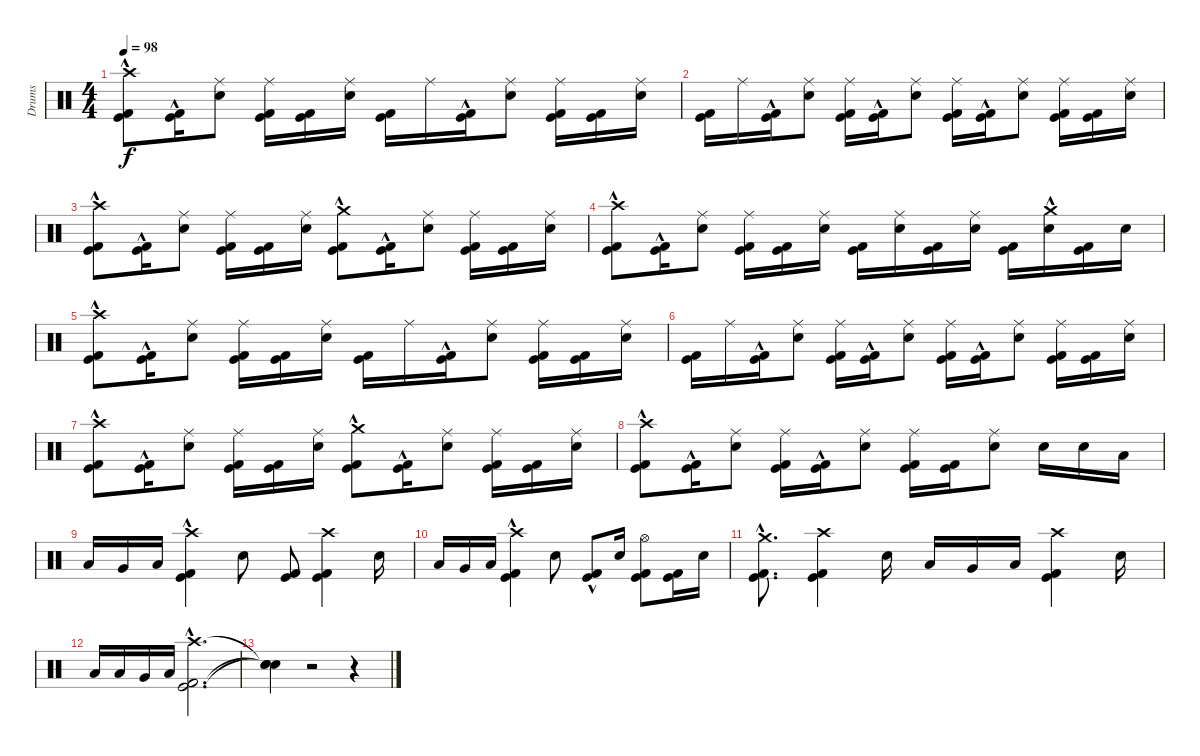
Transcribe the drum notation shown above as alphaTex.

\track ("Drums" "Drums") {instrument percussion}
\staff {score}
\articulation defaults
\ts (4 4)
\tempo 98
\clef neutral
\ks c
("Kick (hit)" "Kick (hit) 2" "Crash high (hit)"{hac}).8{dy f} ("Kick (hit)"{hac} "Kick (hit) 2"{hac}).16 ("Electric Snare (hit)" "Ride (middle)").8 ("Kick (hit)" "Kick (hit) 2" "Ride (middle)").16 ("Kick (hit)" "Kick (hit) 2").16 ("Electric Snare (hit)" "Ride (middle)").16 ("Kick (hit)" "Kick (hit) 2").16 "Ride (middle)".16 ("Kick (hit)"{hac} "Kick (hit) 2"{hac}).16 ("Electric Snare (hit)" "Ride (middle)").8 ("Kick (hit)" "Kick (hit) 2" "Ride (middle)").16 ("Kick (hit)" "Kick (hit) 2").16 ("Electric Snare (hit)" "Ride (middle)").16 |
("Kick (hit)" "Kick (hit) 2").16 "Ride (middle)".16 ("Kick (hit)"{hac} "Kick (hit) 2"{hac}).16 ("Electric Snare (hit)" "Ride (middle)").8 ("Kick (hit)" "Kick (hit) 2" "Ride (middle)").16 ("Kick (hit)"{hac} "Kick (hit) 2"{hac}).16 ("Electric Snare (hit)" "Ride (middle)").8 ("Kick (hit)" "Kick (hit) 2" "Ride (middle)").16 ("Kick (hit)"{hac} "Kick (hit) 2"{hac}).16 ("Electric Snare (hit)" "Ride (middle)").8 ("Kick (hit)" "Kick (hit) 2" "Ride (middle)").16 ("Kick (hit)" "Kick (hit) 2").16 ("Electric Snare (hit)" "Ride (middle)").16 |
("Kick (hit)" "Kick (hit) 2" "Crash high (hit)"{hac}).8 ("Kick (hit)"{hac} "Kick (hit) 2"{hac}).16 ("Electric Snare (hit)" "Ride (middle)").8 ("Kick (hit)" "Kick (hit) 2" "Ride (middle)").16 ("Kick (hit)" "Kick (hit) 2").16 ("Electric Snare (hit)" "Ride (middle)").16 ("Kick (hit)" "Kick (hit) 2" "Crash medium (hit)"{hac}).8 ("Kick (hit)"{hac} "Kick (hit) 2"{hac}).16 ("Electric Snare (hit)" "Ride (middle)").8 ("Kick (hit)" "Kick (hit) 2" "Ride (middle)").16 ("Kick (hit)" "Kick (hit) 2").16 ("Electric Snare (hit)" "Ride (middle)").16 |
("Kick (hit)" "Kick (hit) 2" "Crash high (hit)"{hac}).8 ("Kick (hit)"{hac} "Kick (hit) 2"{hac}).16 ("Electric Snare (hit)" "Ride (middle)").8 ("Kick (hit)" "Kick (hit) 2" "Ride (middle)").16 ("Kick (hit)" "Kick (hit) 2").16 ("Electric Snare (hit)" "Ride (middle)").16 ("Kick (hit)" "Kick (hit) 2").16 ("Electric Snare (hit)" "Ride (middle)").16 ("Kick (hit)" "Kick (hit) 2").16 ("Electric Snare (hit)" "Ride (middle)").16 ("Kick (hit)" "Kick (hit) 2").16 ("Electric Snare (hit)" "Crash medium (hit)"{hac}).16 ("Kick (hit)" "Kick (hit) 2").16 "Electric Snare (hit)".16 |
("Kick (hit)" "Kick (hit) 2" "Crash high (hit)"{hac}).8 ("Kick (hit)"{hac} "Kick (hit) 2"{hac}).16 ("Electric Snare (hit)" "Ride (middle)").8 ("Kick (hit)" "Kick (hit) 2" "Ride (middle)").16 ("Kick (hit)" "Kick (hit) 2").16 ("Electric Snare (hit)" "Ride (middle)").16 ("Kick (hit)" "Kick (hit) 2").16 "Ride (middle)".16 ("Kick (hit)"{hac} "Kick (hit) 2"{hac}).16 ("Electric Snare (hit)" "Ride (middle)").8 ("Kick (hit)" "Kick (hit) 2" "Ride (middle)").16 ("Kick (hit)" "Kick (hit) 2").16 ("Electric Snare (hit)" "Ride (middle)").16 |
("Kick (hit)" "Kick (hit) 2").16 "Ride (middle)".16 ("Kick (hit)"{hac} "Kick (hit) 2"{hac}).16 ("Electric Snare (hit)" "Ride (middle)").8 ("Kick (hit)" "Kick (hit) 2" "Ride (middle)").16 ("Kick (hit)"{hac} "Kick (hit) 2"{hac}).16 ("Electric Snare (hit)" "Ride (middle)").8 ("Kick (hit)" "Kick (hit) 2" "Ride (middle)").16 ("Kick (hit)"{hac} "Kick (hit) 2"{hac}).16 ("Electric Snare (hit)" "Ride (middle)").8 ("Kick (hit)" "Kick (hit) 2" "Ride (middle)").16 ("Kick (hit)" "Kick (hit) 2").16 ("Electric Snare (hit)" "Ride (middle)").16 |
("Kick (hit)" "Kick (hit) 2" "Crash high (hit)"{hac}).8 ("Kick (hit)"{hac} "Kick (hit) 2"{hac}).16 ("Electric Snare (hit)" "Ride (middle)").8 ("Kick (hit)" "Kick (hit) 2" "Ride (middle)").16 ("Kick (hit)" "Kick (hit) 2").16 ("Electric Snare (hit)" "Ride (middle)").16 ("Kick (hit)" "Kick (hit) 2" "Crash medium (hit)"{hac}).8 ("Kick (hit)"{hac} "Kick (hit) 2"{hac}).16 ("Electric Snare (hit)" "Ride (middle)").8 ("Kick (hit)" "Kick (hit) 2" "Ride (middle)").16 ("Kick (hit)" "Kick (hit) 2").16 ("Electric Snare (hit)" "Ride (middle)").16 |
("Kick (hit)" "Kick (hit) 2" "Crash high (hit)"{hac}).8 ("Kick (hit)"{hac} "Kick (hit) 2"{hac}).16 ("Electric Snare (hit)" "Ride (middle)").8 ("Kick (hit)" "Kick (hit) 2" "Ride (middle)").16 ("Kick (hit)"{hac} "Kick (hit) 2"{hac}).16 ("Electric Snare (hit)" "Ride (middle)").8 ("Kick (hit)" "Kick (hit) 2" "Ride (middle)").16 ("Kick (hit)" "Kick (hit) 2").16 ("Electric Snare (hit)" "Ride (middle)").8 "Electric Snare (hit)".16 "Electric Snare (hit)".16 "Low Tom (hit)".16 |
"Low Tom (hit)".16 "Very Low Tom (hit)".16 "Low Floor Tom (hit)".16 ("Kick (hit)"{hac} "Kick (hit) 2"{hac} "Crash high (hit)").4 "Electric Snare (hit)".8 ("Kick (hit)" "Kick (hit) 2").8 ("Kick (hit)" "Kick (hit) 2" "Crash high (hit)").4 "Electric Snare (hit)".16 |
"Low Tom (hit)".16 "Very Low Tom (hit)".16 "Low Floor Tom (hit)".16 ("Kick (hit)"{hac} "Kick (hit) 2"{hac} "Crash high (hit)"{hac}).4 "Electric Snare (hit)".8 ("Kick (hit)"{hac} "Kick (hit) 2"{hac}).8 "Electric Snare (hit)".16 ("Kick (hit)" "Kick (hit) 2" "Hi-Hat (open)").8 ("Kick (hit)" "Kick (hit) 2").16 "Electric Snare (hit)".16 |
("Kick (hit)"{hac} "Kick (hit) 2"{hac} "Crash medium (hit)"{hac}).8{d} ("Kick (hit)" "Kick (hit) 2" "Crash high (hit)").4 "Electric Snare (hit)".16 "Low Tom (hit)".16 "Very Low Tom (hit)".16 "Low Floor Tom (hit)".16 ("Kick (hit)" "Kick (hit) 2" "Crash high (hit)").4 "Electric Snare (hit)".16 |
"Low Tom (hit)".16 "Low Tom (hit)".16 "Very Low Tom (hit)".16 "Low Floor Tom (hit)".16 ("Kick (hit)"{hac} "Kick (hit) 2"{hac} "Crash high (hit)"{hac}).2{d} |
("Snare (hit)"{t} "Snare (hit)"{t} "Snare (hit)"{t}).4 r.2 r.4
